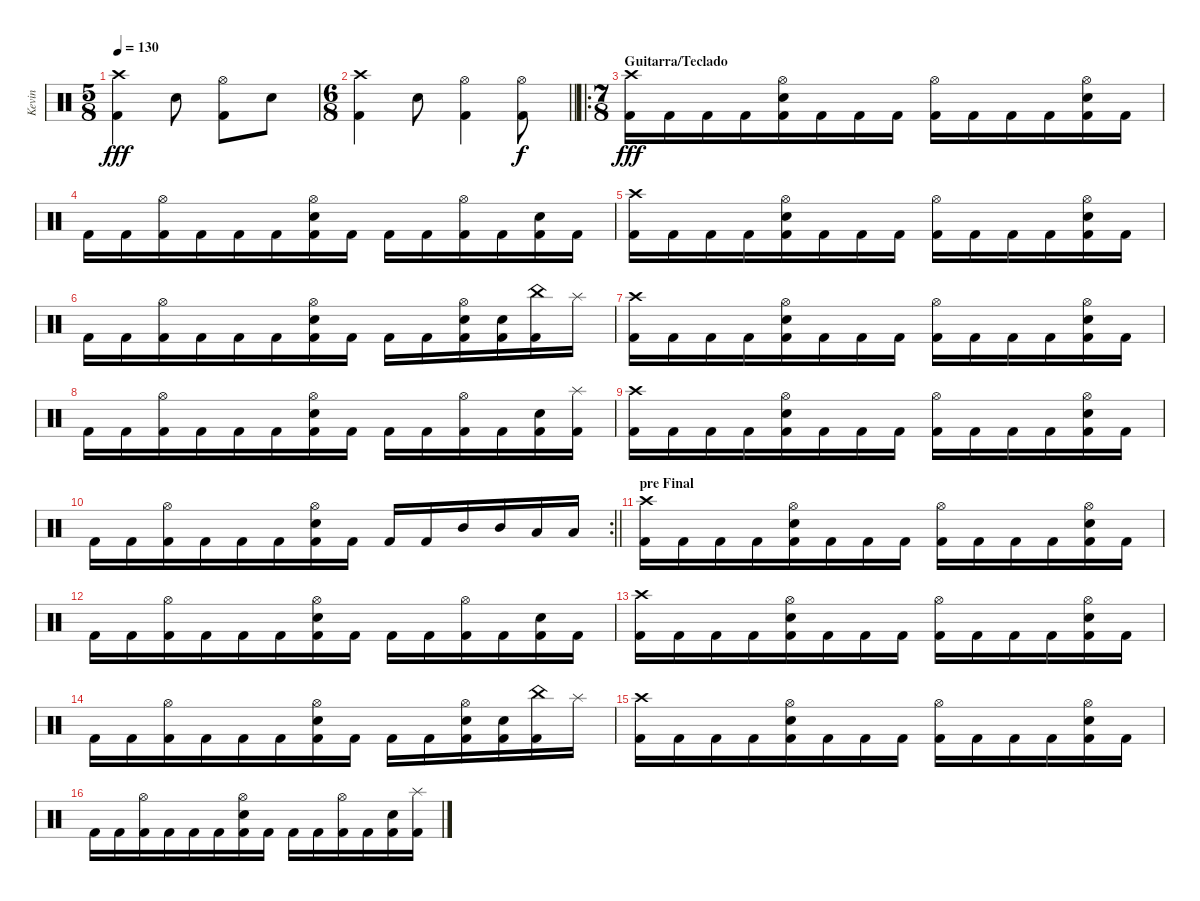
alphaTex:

\track ("Kevin" "Kevin") {instrument percussion}
\staff {score}
\articulation defaults
\ts (5 8)
\tempo 130
\clef neutral
\ks c
("Crash high (hit)" "Kick (hit) 2").4{dy fff} "Snare (hit) 2".8 ("Hi-Hat (open)" "Kick (hit) 2").8 "Snare (hit) 2".8 |
\ts (6 8)
\barLineRight lightlight
("Crash high (hit)" "Kick (hit) 2").4 "Snare (hit) 2".8 ("Hi-Hat (open)" "Kick (hit) 2").4 ("Hi-Hat (open)" "Kick (hit) 2").8{dy f} |
\ro
\ts (7 8)
\section ("" "Guitarra/Teclado")
("Crash high (hit)" "Kick (hit) 2").16{dy fff} "Kick (hit) 2".16 "Kick (hit) 2".16 "Kick (hit) 2".16 ("Hi-Hat (open)" "Electric Snare (hit)" "Kick (hit) 2").16 "Kick (hit) 2".16 "Kick (hit) 2".16 "Kick (hit) 2".16 ("Hi-Hat (open)" "Kick (hit) 2").16 "Kick (hit) 2".16 "Kick (hit) 2".16 "Kick (hit) 2".16 ("Hi-Hat (open)" "Electric Snare (hit)" "Kick (hit) 2").16 "Kick (hit) 2".16 |
"Kick (hit) 2".16 "Kick (hit) 2".16 ("Hi-Hat (open)" "Kick (hit) 2").16 "Kick (hit) 2".16 "Kick (hit) 2".16 "Kick (hit) 2".16 ("Hi-Hat (open)" "Electric Snare (hit)" "Kick (hit) 2").16 "Kick (hit) 2".16 "Kick (hit) 2".16 "Kick (hit) 2".16 ("Hi-Hat (open)" "Kick (hit) 2").16 "Kick (hit) 2".16 ("Electric Snare (hit)" "Kick (hit) 2").16 "Kick (hit) 2".16 |
("Crash high (hit)" "Kick (hit) 2").16 "Kick (hit) 2".16 "Kick (hit) 2".16 "Kick (hit) 2".16 ("Hi-Hat (open)" "Electric Snare (hit)" "Kick (hit) 2").16 "Kick (hit) 2".16 "Kick (hit) 2".16 "Kick (hit) 2".16 ("Hi-Hat (open)" "Kick (hit) 2").16 "Kick (hit) 2".16 "Kick (hit) 2".16 "Kick (hit) 2".16 ("Hi-Hat (open)" "Electric Snare (hit)" "Kick (hit) 2").16 "Kick (hit) 2".16 |
"Kick (hit) 2".16 "Kick (hit) 2".16 ("Hi-Hat (open)" "Kick (hit) 2").16 "Kick (hit) 2".16 "Kick (hit) 2".16 "Kick (hit) 2".16 ("Hi-Hat (open)" "Electric Snare (hit)" "Kick (hit) 2").16 "Kick (hit) 2".16 "Kick (hit) 2".16 "Kick (hit) 2".16 ("Hi-Hat (open)" "Electric Snare (hit)" "Kick (hit) 2").16 ("Electric Snare (hit)" "Kick (hit) 2").16 ("China (hit)" "Kick (hit) 2").16 "Splash (hit)".16 |
("Crash high (hit)" "Kick (hit) 2").16 "Kick (hit) 2".16 "Kick (hit) 2".16 "Kick (hit) 2".16 ("Hi-Hat (open)" "Electric Snare (hit)" "Kick (hit) 2").16 "Kick (hit) 2".16 "Kick (hit) 2".16 "Kick (hit) 2".16 ("Hi-Hat (open)" "Kick (hit) 2").16 "Kick (hit) 2".16 "Kick (hit) 2".16 "Kick (hit) 2".16 ("Hi-Hat (open)" "Electric Snare (hit)" "Kick (hit) 2").16 "Kick (hit) 2".16 |
"Kick (hit) 2".16 "Kick (hit) 2".16 ("Hi-Hat (open)" "Kick (hit) 2").16 "Kick (hit) 2".16 "Kick (hit) 2".16 "Kick (hit) 2".16 ("Hi-Hat (open)" "Electric Snare (hit)" "Kick (hit) 2").16 "Kick (hit) 2".16 "Kick (hit) 2".16 "Kick (hit) 2".16 ("Hi-Hat (open)" "Kick (hit) 2").16 "Kick (hit) 2".16 ("Electric Snare (hit)" "Kick (hit) 2").16 ("Splash (hit)" "Kick (hit) 2").16 |
("Crash high (hit)" "Kick (hit) 2").16 "Kick (hit) 2".16 "Kick (hit) 2".16 "Kick (hit) 2".16 ("Hi-Hat (open)" "Electric Snare (hit)" "Kick (hit) 2").16 "Kick (hit) 2".16 "Kick (hit) 2".16 "Kick (hit) 2".16 ("Hi-Hat (open)" "Kick (hit) 2").16 "Kick (hit) 2".16 "Kick (hit) 2".16 "Kick (hit) 2".16 ("Hi-Hat (open)" "Electric Snare (hit)" "Kick (hit) 2").16 "Kick (hit) 2".16 |
\rc 2
\barLineRight lightlight "Kick (hit) 2".16 "Kick (hit) 2".16
("Hi-Hat (open)" "Kick (hit) 2").16 "Kick (hit) 2".16 "Kick (hit) 2".16 "Kick (hit) 2".16 ("Hi-Hat (open)" "Electric Snare (hit)" "Kick (hit) 2").16 "Kick (hit) 2".16 "Kick (hit) 2".16 "Kick (hit) 2".16 "Mid Tom (hit)".16 "Mid Tom (hit)".16 "Low Tom (hit)".16 "Low Tom (hit)".16 |
\section ("" "pre Final")
("Crash high (hit)" "Kick (hit) 2").16 "Kick (hit) 2".16 "Kick (hit) 2".16 "Kick (hit) 2".16 ("Hi-Hat (open)" "Electric Snare (hit)" "Kick (hit) 2").16 "Kick (hit) 2".16 "Kick (hit) 2".16 "Kick (hit) 2".16 ("Hi-Hat (open)" "Kick (hit) 2").16 "Kick (hit) 2".16 "Kick (hit) 2".16 "Kick (hit) 2".16 ("Hi-Hat (open)" "Electric Snare (hit)" "Kick (hit) 2").16 "Kick (hit) 2".16 |
"Kick (hit) 2".16 "Kick (hit) 2".16 ("Hi-Hat (open)" "Kick (hit) 2").16 "Kick (hit) 2".16 "Kick (hit) 2".16 "Kick (hit) 2".16 ("Hi-Hat (open)" "Electric Snare (hit)" "Kick (hit) 2").16 "Kick (hit) 2".16 "Kick (hit) 2".16 "Kick (hit) 2".16 ("Hi-Hat (open)" "Kick (hit) 2").16 "Kick (hit) 2".16 ("Electric Snare (hit)" "Kick (hit) 2").16 "Kick (hit) 2".16 |
("Crash high (hit)" "Kick (hit) 2").16 "Kick (hit) 2".16 "Kick (hit) 2".16 "Kick (hit) 2".16 ("Hi-Hat (open)" "Electric Snare (hit)" "Kick (hit) 2").16 "Kick (hit) 2".16 "Kick (hit) 2".16 "Kick (hit) 2".16 ("Hi-Hat (open)" "Kick (hit) 2").16 "Kick (hit) 2".16 "Kick (hit) 2".16 "Kick (hit) 2".16 ("Hi-Hat (open)" "Electric Snare (hit)" "Kick (hit) 2").16 "Kick (hit) 2".16 |
"Kick (hit) 2".16 "Kick (hit) 2".16 ("Hi-Hat (open)" "Kick (hit) 2").16 "Kick (hit) 2".16 "Kick (hit) 2".16 "Kick (hit) 2".16 ("Hi-Hat (open)" "Electric Snare (hit)" "Kick (hit) 2").16 "Kick (hit) 2".16 "Kick (hit) 2".16 "Kick (hit) 2".16 ("Hi-Hat (open)" "Electric Snare (hit)" "Kick (hit) 2").16 ("Electric Snare (hit)" "Kick (hit) 2").16 ("China (hit)" "Kick (hit) 2").16 "Splash (hit)".16 |
("Crash high (hit)" "Kick (hit) 2").16 "Kick (hit) 2".16 "Kick (hit) 2".16 "Kick (hit) 2".16 ("Hi-Hat (open)" "Electric Snare (hit)" "Kick (hit) 2").16 "Kick (hit) 2".16 "Kick (hit) 2".16 "Kick (hit) 2".16 ("Hi-Hat (open)" "Kick (hit) 2").16 "Kick (hit) 2".16 "Kick (hit) 2".16 "Kick (hit) 2".16 ("Hi-Hat (open)" "Electric Snare (hit)" "Kick (hit) 2").16 "Kick (hit) 2".16 |
"Kick (hit) 2".16 "Kick (hit) 2".16 ("Hi-Hat (open)" "Kick (hit) 2").16 "Kick (hit) 2".16 "Kick (hit) 2".16 "Kick (hit) 2".16 ("Hi-Hat (open)" "Electric Snare (hit)" "Kick (hit) 2").16 "Kick (hit) 2".16 "Kick (hit) 2".16 "Kick (hit) 2".16 ("Hi-Hat (open)" "Kick (hit) 2").16 "Kick (hit) 2".16 ("Electric Snare (hit)" "Kick (hit) 2").16 ("Splash (hit)" "Kick (hit) 2").16
